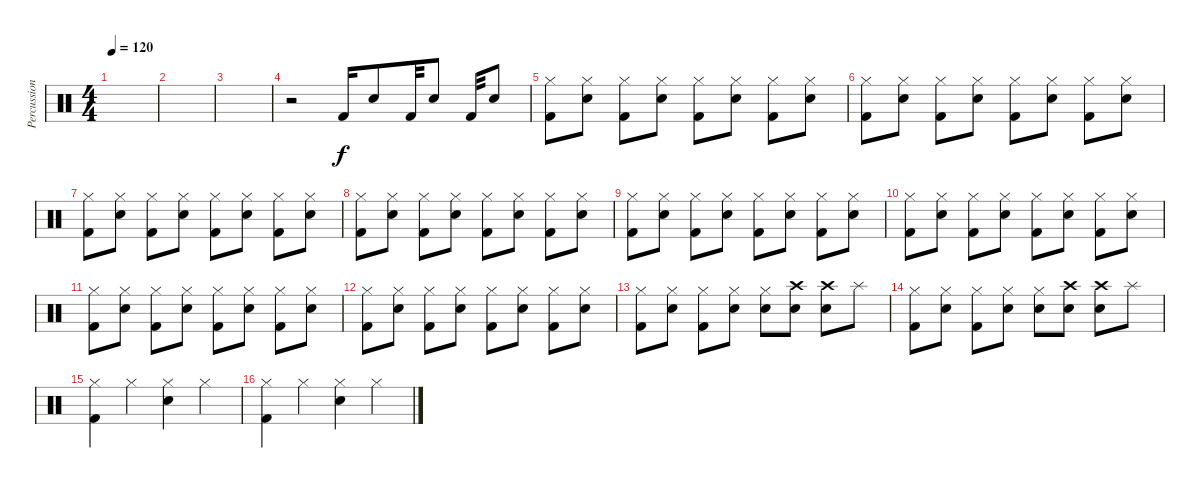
\track ("Percussion" "Percussion") {instrument percussion}
\staff {score}
\articulation defaults
\ts (4 4)
\tempo 120
\clef neutral
\ks c
|
|
|
r.2 "Kick (hit) 2".16 "Snare (hit) 2".8 "Kick (hit) 2".32 "Snare (hit) 2".8 "Kick (hit) 2".32 "Snare (hit) 2".8 |
("Kick (hit) 2" "Hi-Hat (closed)").8 ("Snare (hit) 2" "Hi-Hat (closed)").8 ("Kick (hit) 2" "Hi-Hat (closed)").8 ("Snare (hit) 2" "Hi-Hat (closed)").8 ("Kick (hit) 2" "Hi-Hat (closed)").8 ("Snare (hit) 2" "Hi-Hat (closed)").8 ("Kick (hit) 2" "Hi-Hat (closed)").8 ("Snare (hit) 2" "Hi-Hat (closed)").8 |
("Kick (hit) 2" "Hi-Hat (closed)").8 ("Snare (hit) 2" "Hi-Hat (closed)").8 ("Kick (hit) 2" "Hi-Hat (closed)").8 ("Snare (hit) 2" "Hi-Hat (closed)").8 ("Kick (hit) 2" "Hi-Hat (closed)").8 ("Snare (hit) 2" "Hi-Hat (closed)").8 ("Kick (hit) 2" "Hi-Hat (closed)").8 ("Snare (hit) 2" "Hi-Hat (closed)").8 |
("Kick (hit) 2" "Hi-Hat (closed)").8 ("Snare (hit) 2" "Hi-Hat (closed)").8 ("Kick (hit) 2" "Hi-Hat (closed)").8 ("Snare (hit) 2" "Hi-Hat (closed)").8 ("Kick (hit) 2" "Hi-Hat (closed)").8 ("Snare (hit) 2" "Hi-Hat (closed)").8 ("Kick (hit) 2" "Hi-Hat (closed)").8 ("Snare (hit) 2" "Hi-Hat (closed)").8 |
("Kick (hit) 2" "Hi-Hat (closed)").8 ("Snare (hit) 2" "Hi-Hat (closed)").8 ("Kick (hit) 2" "Hi-Hat (closed)").8 ("Snare (hit) 2" "Hi-Hat (closed)").8 ("Kick (hit) 2" "Hi-Hat (closed)").8 ("Snare (hit) 2" "Hi-Hat (closed)").8 ("Kick (hit) 2" "Hi-Hat (closed)").8 ("Snare (hit) 2" "Hi-Hat (closed)").8 |
("Kick (hit) 2" "Hi-Hat (closed)").8 ("Snare (hit) 2" "Hi-Hat (closed)").8 ("Kick (hit) 2" "Hi-Hat (closed)").8 ("Snare (hit) 2" "Hi-Hat (closed)").8 ("Kick (hit) 2" "Hi-Hat (closed)").8 ("Snare (hit) 2" "Hi-Hat (closed)").8 ("Kick (hit) 2" "Hi-Hat (closed)").8 ("Snare (hit) 2" "Hi-Hat (closed)").8 |
("Kick (hit) 2" "Hi-Hat (closed)").8 ("Snare (hit) 2" "Hi-Hat (closed)").8 ("Kick (hit) 2" "Hi-Hat (closed)").8 ("Snare (hit) 2" "Hi-Hat (closed)").8 ("Kick (hit) 2" "Hi-Hat (closed)").8 ("Snare (hit) 2" "Hi-Hat (closed)").8 ("Kick (hit) 2" "Hi-Hat (closed)").8 ("Snare (hit) 2" "Hi-Hat (closed)").8 |
("Kick (hit) 2" "Hi-Hat (closed)").8 ("Snare (hit) 2" "Hi-Hat (closed)").8 ("Kick (hit) 2" "Hi-Hat (closed)").8 ("Snare (hit) 2" "Hi-Hat (closed)").8 ("Kick (hit) 2" "Hi-Hat (closed)").8 ("Snare (hit) 2" "Hi-Hat (closed)").8 ("Kick (hit) 2" "Hi-Hat (closed)").8 ("Snare (hit) 2" "Hi-Hat (closed)").8 |
("Kick (hit) 2" "Hi-Hat (closed)").8 ("Snare (hit) 2" "Hi-Hat (closed)").8 ("Kick (hit) 2" "Hi-Hat (closed)").8 ("Snare (hit) 2" "Hi-Hat (closed)").8 ("Kick (hit) 2" "Hi-Hat (closed)").8 ("Snare (hit) 2" "Hi-Hat (closed)").8 ("Kick (hit) 2" "Hi-Hat (closed)").8 ("Snare (hit) 2" "Hi-Hat (closed)").8 |
("Kick (hit) 2" "Hi-Hat (closed)").8 ("Snare (hit) 2" "Hi-Hat (closed)").8 ("Kick (hit) 2" "Hi-Hat (closed)").8 ("Snare (hit) 2" "Hi-Hat (closed)").8 ("Snare (hit) 2" "Hi-Hat (closed)").8 ("Snare (hit) 2" "Crash high (hit)").8 ("Snare (hit) 2" "Crash high (hit)").8 "Splash (hit)".8 |
("Kick (hit) 2" "Hi-Hat (closed)").8 ("Snare (hit) 2" "Hi-Hat (closed)").8 ("Kick (hit) 2" "Hi-Hat (closed)").8 ("Snare (hit) 2" "Hi-Hat (closed)").8 ("Snare (hit) 2" "Hi-Hat (closed)").8 ("Snare (hit) 2" "Crash high (hit)").8 ("Snare (hit) 2" "Crash high (hit)").8 "Splash (hit)".8 |
("Kick (hit) 2" "Hi-Hat (closed)").4 "Hi-Hat (closed)".4 ("Snare (hit) 2" "Hi-Hat (closed)").4 "Hi-Hat (closed)".4 |
("Kick (hit) 2" "Hi-Hat (closed)").4 "Hi-Hat (closed)".4 ("Snare (hit) 2" "Hi-Hat (closed)").4 "Hi-Hat (closed)".4
